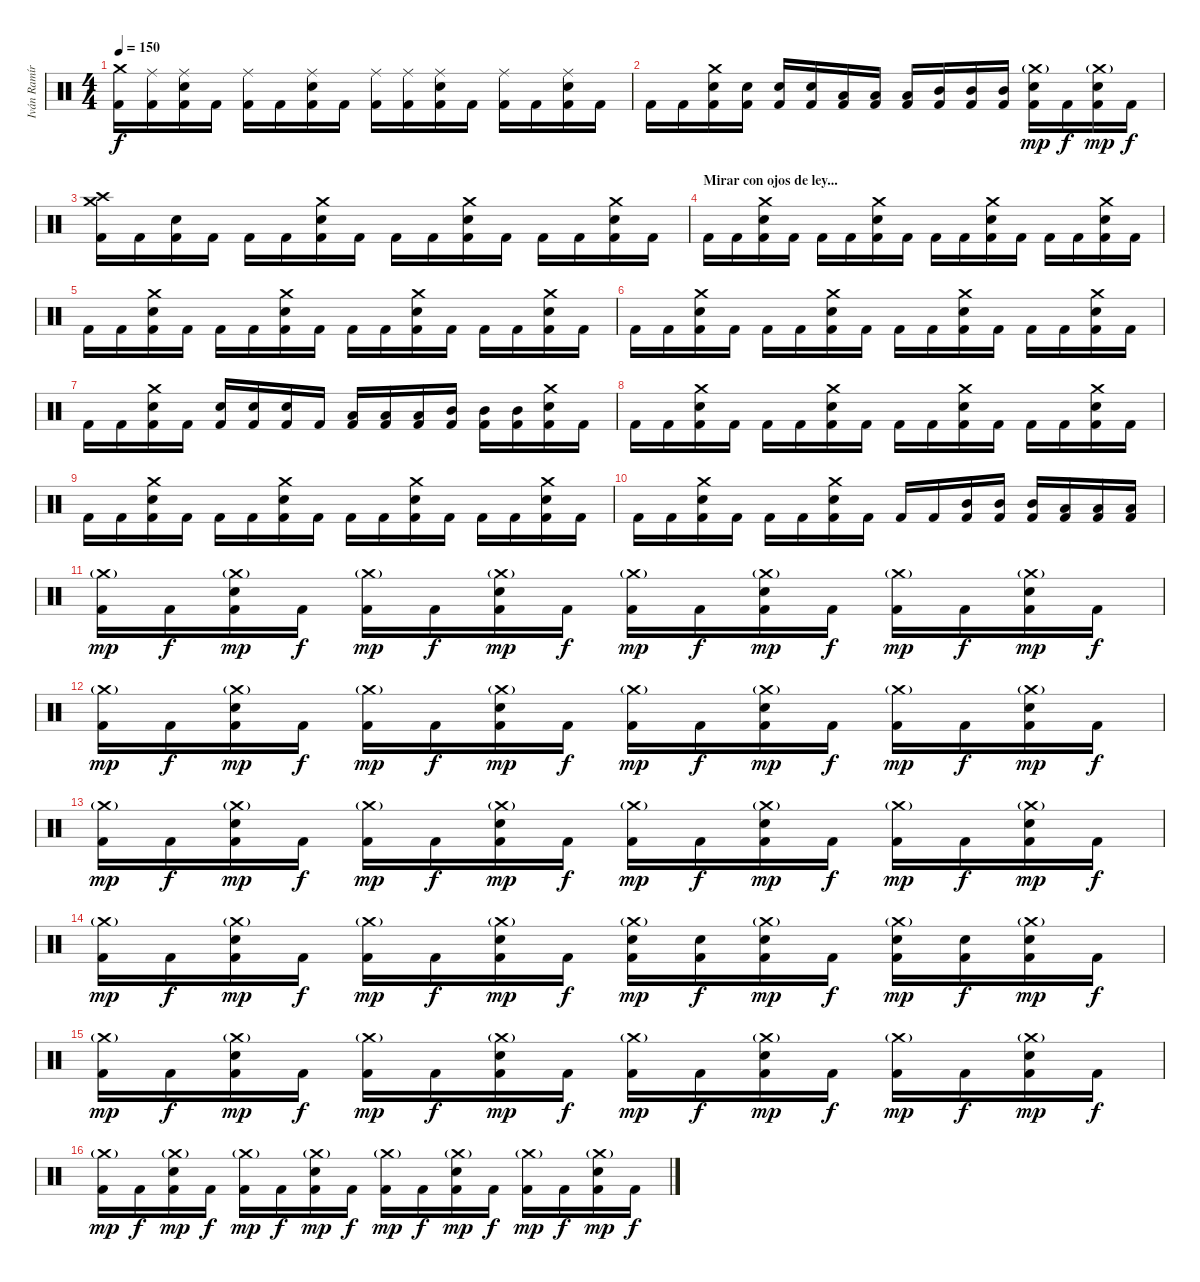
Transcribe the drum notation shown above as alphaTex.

\track ("Iván Ramírez" "Iván Ramír") {instrument percussion}
\staff {score}
\articulation defaults
\ts (4 4)
\tempo 150
\clef neutral
\ks c
("Crash medium (hit)" "Kick (hit) 2").16{dy f} ("Ride (middle)" "Kick (hit) 2").16 ("Ride (middle)" "Electric Snare (hit)" "Kick (hit) 2").16 "Kick (hit) 2".16 ("Ride (middle)" "Kick (hit) 2").16 "Kick (hit) 2".16 ("Ride (middle)" "Electric Snare (hit)" "Kick (hit) 2").16 "Kick (hit) 2".16 ("Ride (middle)" "Kick (hit) 2").16 ("Ride (middle)" "Kick (hit) 2").16 ("Ride (middle)" "Electric Snare (hit)" "Kick (hit) 2").16 "Kick (hit) 2".16 ("Ride (middle)" "Kick (hit) 2").16 "Kick (hit) 2".16 ("Ride (middle)" "Electric Snare (hit)" "Kick (hit) 2").16 "Kick (hit) 2".16 |
"Kick (hit) 2".16 "Kick (hit) 2".16 ("Crash medium (hit)" "Electric Snare (hit)" "Kick (hit) 2").16 ("Electric Snare (hit)" "Kick (hit) 2").16 ("Electric Snare (hit)" "Kick (hit) 2").16 ("Electric Snare (hit)" "Kick (hit) 2").16 ("Low Tom (hit)" "Kick (hit) 2").16 ("Low Tom (hit)" "Kick (hit) 2").16 ("Low Tom (hit)" "Kick (hit) 2").16 ("Mid Tom (hit)" "Kick (hit) 2").16 ("Mid Tom (hit)" "Kick (hit) 2").16 ("Mid Tom (hit)" "Kick (hit) 2").16 ("Crash medium (hit)"{g} "Electric Snare (hit)" "Kick (hit) 2").16{dy mp} "Kick (hit) 2".16{dy f} ("Crash medium (hit)"{g} "Electric Snare (hit)" "Kick (hit) 2").16{dy mp} "Kick (hit) 2".16{dy f} |
("Crash medium (hit)" "Crash high (hit)" "Kick (hit) 2").16 "Kick (hit) 2".16 ("Electric Snare (hit)" "Kick (hit) 2").16 "Kick (hit) 2".16 "Kick (hit) 2".16 "Kick (hit) 2".16 ("Crash medium (hit)" "Electric Snare (hit)" "Kick (hit) 2").16 "Kick (hit) 2".16 "Kick (hit) 2".16 "Kick (hit) 2".16 ("Crash medium (hit)" "Electric Snare (hit)" "Kick (hit) 2").16 "Kick (hit) 2".16 "Kick (hit) 2".16 "Kick (hit) 2".16 ("Crash medium (hit)" "Electric Snare (hit)" "Kick (hit) 2").16 "Kick (hit) 2".16 |
\section ("" "Mirar con ojos de ley...")
"Kick (hit) 2".16 "Kick (hit) 2".16 ("Crash medium (hit)" "Electric Snare (hit)" "Kick (hit) 2").16 "Kick (hit) 2".16 "Kick (hit) 2".16 "Kick (hit) 2".16 ("Crash medium (hit)" "Electric Snare (hit)" "Kick (hit) 2").16 "Kick (hit) 2".16 "Kick (hit) 2".16 "Kick (hit) 2".16 ("Crash medium (hit)" "Electric Snare (hit)" "Kick (hit) 2").16 "Kick (hit) 2".16 "Kick (hit) 2".16 "Kick (hit) 2".16 ("Crash medium (hit)" "Electric Snare (hit)" "Kick (hit) 2").16 "Kick (hit) 2".16 |
"Kick (hit) 2".16 "Kick (hit) 2".16 ("Crash medium (hit)" "Electric Snare (hit)" "Kick (hit) 2").16 "Kick (hit) 2".16 "Kick (hit) 2".16 "Kick (hit) 2".16 ("Crash medium (hit)" "Electric Snare (hit)" "Kick (hit) 2").16 "Kick (hit) 2".16 "Kick (hit) 2".16 "Kick (hit) 2".16 ("Crash medium (hit)" "Electric Snare (hit)" "Kick (hit) 2").16 "Kick (hit) 2".16 "Kick (hit) 2".16 "Kick (hit) 2".16 ("Crash medium (hit)" "Electric Snare (hit)" "Kick (hit) 2").16 "Kick (hit) 2".16 |
"Kick (hit) 2".16 "Kick (hit) 2".16 ("Crash medium (hit)" "Electric Snare (hit)" "Kick (hit) 2").16 "Kick (hit) 2".16 "Kick (hit) 2".16 "Kick (hit) 2".16 ("Crash medium (hit)" "Electric Snare (hit)" "Kick (hit) 2").16 "Kick (hit) 2".16 "Kick (hit) 2".16 "Kick (hit) 2".16 ("Crash medium (hit)" "Electric Snare (hit)" "Kick (hit) 2").16 "Kick (hit) 2".16 "Kick (hit) 2".16 "Kick (hit) 2".16 ("Crash medium (hit)" "Electric Snare (hit)" "Kick (hit) 2").16 "Kick (hit) 2".16 |
"Kick (hit) 2".16 "Kick (hit) 2".16 ("Crash medium (hit)" "Electric Snare (hit)" "Kick (hit) 2").16 "Kick (hit) 2".16 ("Electric Snare (hit)" "Kick (hit) 2").16 ("Electric Snare (hit)" "Kick (hit) 2").16 ("Electric Snare (hit)" "Kick (hit) 2").16 "Kick (hit) 2".16 ("Low Tom (hit)" "Kick (hit) 2").16 ("Low Tom (hit)" "Kick (hit) 2").16 ("Low Tom (hit)" "Kick (hit) 2").16 ("Mid Tom (hit)" "Kick (hit) 2").16 ("Mid Tom (hit)" "Kick (hit) 2").16 ("Mid Tom (hit)" "Kick (hit) 2").16 ("Crash medium (hit)" "Electric Snare (hit)" "Kick (hit) 2").16 "Kick (hit) 2".16 |
"Kick (hit) 2".16 "Kick (hit) 2".16 ("Crash medium (hit)" "Electric Snare (hit)" "Kick (hit) 2").16 "Kick (hit) 2".16 "Kick (hit) 2".16 "Kick (hit) 2".16 ("Crash medium (hit)" "Electric Snare (hit)" "Kick (hit) 2").16 "Kick (hit) 2".16 "Kick (hit) 2".16 "Kick (hit) 2".16 ("Crash medium (hit)" "Electric Snare (hit)" "Kick (hit) 2").16 "Kick (hit) 2".16 "Kick (hit) 2".16 "Kick (hit) 2".16 ("Crash medium (hit)" "Electric Snare (hit)" "Kick (hit) 2").16 "Kick (hit) 2".16 |
"Kick (hit) 2".16 "Kick (hit) 2".16 ("Crash medium (hit)" "Electric Snare (hit)" "Kick (hit) 2").16 "Kick (hit) 2".16 "Kick (hit) 2".16 "Kick (hit) 2".16 ("Crash medium (hit)" "Electric Snare (hit)" "Kick (hit) 2").16 "Kick (hit) 2".16 "Kick (hit) 2".16 "Kick (hit) 2".16 ("Crash medium (hit)" "Electric Snare (hit)" "Kick (hit) 2").16 "Kick (hit) 2".16 "Kick (hit) 2".16 "Kick (hit) 2".16 ("Crash medium (hit)" "Electric Snare (hit)" "Kick (hit) 2").16 "Kick (hit) 2".16 |
"Kick (hit) 2".16 "Kick (hit) 2".16 ("Crash medium (hit)" "Electric Snare (hit)" "Kick (hit) 2").16 "Kick (hit) 2".16 "Kick (hit) 2".16 "Kick (hit) 2".16 ("Crash medium (hit)" "Electric Snare (hit)" "Kick (hit) 2").16 "Kick (hit) 2".16 "Kick (hit) 2".16 "Kick (hit) 2".16 ("Mid Tom (hit)" "Kick (hit) 2").16 ("Mid Tom (hit)" "Kick (hit) 2").16 ("Mid Tom (hit)" "Kick (hit) 2").16 ("Low Tom (hit)" "Kick (hit) 2").16 ("Low Tom (hit)" "Kick (hit) 2").16 ("Low Tom (hit)" "Kick (hit) 2").16 |
("Crash medium (hit)"{g} "Kick (hit) 2").16{dy mp} "Kick (hit) 2".16{dy f} ("Crash medium (hit)"{g} "Electric Snare (hit)" "Kick (hit) 2").16{dy mp} "Kick (hit) 2".16{dy f} ("Crash medium (hit)"{g} "Kick (hit) 2").16{dy mp} "Kick (hit) 2".16{dy f} ("Crash medium (hit)"{g} "Electric Snare (hit)" "Kick (hit) 2").16{dy mp} "Kick (hit) 2".16{dy f} ("Crash medium (hit)"{g} "Kick (hit) 2").16{dy mp} "Kick (hit) 2".16{dy f} ("Crash medium (hit)"{g} "Electric Snare (hit)" "Kick (hit) 2").16{dy mp} "Kick (hit) 2".16{dy f} ("Crash medium (hit)"{g} "Kick (hit) 2").16{dy mp} "Kick (hit) 2".16{dy f} ("Crash medium (hit)"{g} "Electric Snare (hit)" "Kick (hit) 2").16{dy mp} "Kick (hit) 2".16{dy f} |
("Crash medium (hit)"{g} "Kick (hit) 2").16{dy mp} "Kick (hit) 2".16{dy f} ("Crash medium (hit)"{g} "Electric Snare (hit)" "Kick (hit) 2").16{dy mp} "Kick (hit) 2".16{dy f} ("Crash medium (hit)"{g} "Kick (hit) 2").16{dy mp} "Kick (hit) 2".16{dy f} ("Crash medium (hit)"{g} "Electric Snare (hit)" "Kick (hit) 2").16{dy mp} "Kick (hit) 2".16{dy f} ("Crash medium (hit)"{g} "Kick (hit) 2").16{dy mp} "Kick (hit) 2".16{dy f} ("Crash medium (hit)"{g} "Electric Snare (hit)" "Kick (hit) 2").16{dy mp} "Kick (hit) 2".16{dy f} ("Crash medium (hit)"{g} "Kick (hit) 2").16{dy mp} "Kick (hit) 2".16{dy f} ("Crash medium (hit)"{g} "Electric Snare (hit)" "Kick (hit) 2").16{dy mp} "Kick (hit) 2".16{dy f} |
("Crash medium (hit)"{g} "Kick (hit) 2").16{dy mp} "Kick (hit) 2".16{dy f} ("Crash medium (hit)"{g} "Electric Snare (hit)" "Kick (hit) 2").16{dy mp} "Kick (hit) 2".16{dy f} ("Crash medium (hit)"{g} "Kick (hit) 2").16{dy mp} "Kick (hit) 2".16{dy f} ("Crash medium (hit)"{g} "Electric Snare (hit)" "Kick (hit) 2").16{dy mp} "Kick (hit) 2".16{dy f} ("Crash medium (hit)"{g} "Kick (hit) 2").16{dy mp} "Kick (hit) 2".16{dy f} ("Crash medium (hit)"{g} "Electric Snare (hit)" "Kick (hit) 2").16{dy mp} "Kick (hit) 2".16{dy f} ("Crash medium (hit)"{g} "Kick (hit) 2").16{dy mp} "Kick (hit) 2".16{dy f} ("Crash medium (hit)"{g} "Electric Snare (hit)" "Kick (hit) 2").16{dy mp} "Kick (hit) 2".16{dy f} |
("Crash medium (hit)"{g} "Kick (hit) 2").16{dy mp} "Kick (hit) 2".16{dy f} ("Crash medium (hit)"{g} "Electric Snare (hit)" "Kick (hit) 2").16{dy mp} "Kick (hit) 2".16{dy f} ("Crash medium (hit)"{g} "Kick (hit) 2").16{dy mp} "Kick (hit) 2".16{dy f} ("Crash medium (hit)"{g} "Electric Snare (hit)" "Kick (hit) 2").16{dy mp} "Kick (hit) 2".16{dy f} ("Crash medium (hit)"{g} "Electric Snare (hit)" "Kick (hit) 2").16{dy mp} ("Electric Snare (hit)" "Kick (hit) 2").16{dy f} ("Crash medium (hit)"{g} "Electric Snare (hit)" "Kick (hit) 2").16{dy mp} "Kick (hit) 2".16{dy f} ("Crash medium (hit)"{g} "Electric Snare (hit)" "Kick (hit) 2").16{dy mp} ("Electric Snare (hit)" "Kick (hit) 2").16{dy f} ("Crash medium (hit)"{g} "Electric Snare (hit)" "Kick (hit) 2").16{dy mp} "Kick (hit) 2".16{dy f} |
("Crash medium (hit)"{g} "Kick (hit) 2").16{dy mp} "Kick (hit) 2".16{dy f} ("Crash medium (hit)"{g} "Electric Snare (hit)" "Kick (hit) 2").16{dy mp} "Kick (hit) 2".16{dy f} ("Crash medium (hit)"{g} "Kick (hit) 2").16{dy mp} "Kick (hit) 2".16{dy f} ("Crash medium (hit)"{g} "Electric Snare (hit)" "Kick (hit) 2").16{dy mp} "Kick (hit) 2".16{dy f} ("Crash medium (hit)"{g} "Kick (hit) 2").16{dy mp} "Kick (hit) 2".16{dy f} ("Crash medium (hit)"{g} "Electric Snare (hit)" "Kick (hit) 2").16{dy mp} "Kick (hit) 2".16{dy f} ("Crash medium (hit)"{g} "Kick (hit) 2").16{dy mp} "Kick (hit) 2".16{dy f} ("Crash medium (hit)"{g} "Electric Snare (hit)" "Kick (hit) 2").16{dy mp} "Kick (hit) 2".16{dy f} |
("Crash medium (hit)"{g} "Kick (hit) 2").16{dy mp} "Kick (hit) 2".16{dy f} ("Crash medium (hit)"{g} "Electric Snare (hit)" "Kick (hit) 2").16{dy mp} "Kick (hit) 2".16{dy f} ("Crash medium (hit)"{g} "Kick (hit) 2").16{dy mp} "Kick (hit) 2".16{dy f} ("Crash medium (hit)"{g} "Electric Snare (hit)" "Kick (hit) 2").16{dy mp} "Kick (hit) 2".16{dy f} ("Crash medium (hit)"{g} "Kick (hit) 2").16{dy mp} "Kick (hit) 2".16{dy f} ("Crash medium (hit)"{g} "Electric Snare (hit)" "Kick (hit) 2").16{dy mp} "Kick (hit) 2".16{dy f} ("Crash medium (hit)"{g} "Kick (hit) 2").16{dy mp} "Kick (hit) 2".16{dy f} ("Crash medium (hit)"{g} "Electric Snare (hit)" "Kick (hit) 2").16{dy mp} "Kick (hit) 2".16{dy f}
